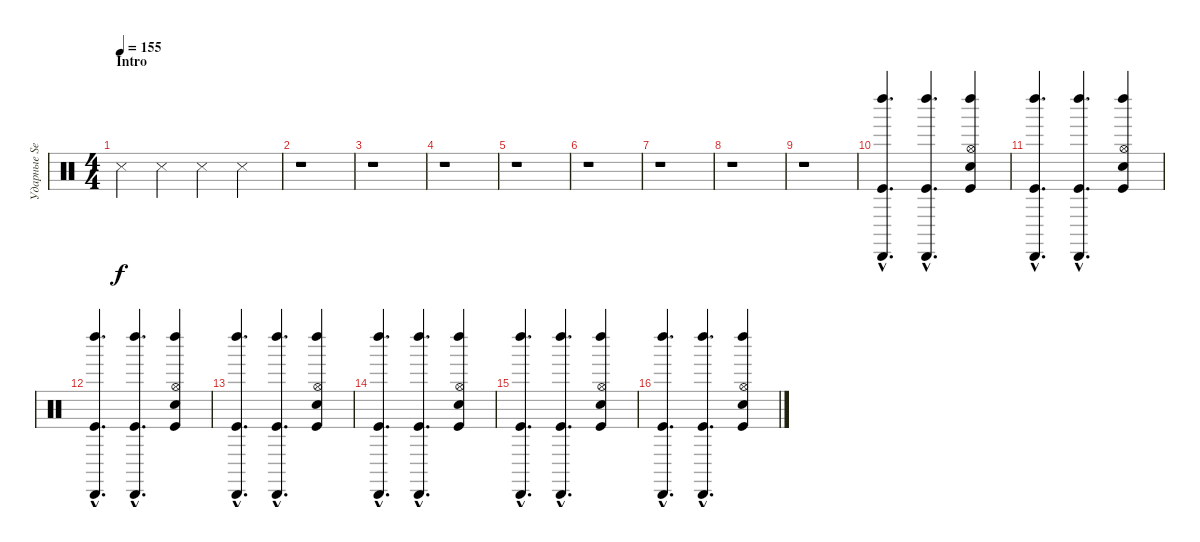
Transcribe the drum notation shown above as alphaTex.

\track ("Ударные Serge Petrone" "Ударные Se") {instrument percussion}
\staff {score}
\articulation defaults
\ts (4 4)
\section ("" "Intro")
\tempo 155
\clef neutral
\ks c "Snare (side stick) 3".4{dy f} "Snare (side stick) 3".4 "Snare (side stick) 3".4 "Snare (side stick) 3".4
|
r.1 |
r.1 |
r.1 |
r.1 |
r.1 |
r.1 |
r.1 |
r.1 |
("Cabasa (hit)"{hac} "Kick (hit)"{hac} "Left Maraca (hit)"{hac}).4{d} ("Cabasa (hit)"{hac} "Kick (hit)"{hac} "Left Maraca (hit)"{hac}).4{d} ("Hi-Hat (open)" "Hand Clap (hit)" "Kick (hit)" "Left Maraca (hit)").4 |
("Cabasa (hit)"{hac} "Kick (hit)"{hac} "Left Maraca (hit)"{hac}).4{d} ("Cabasa (hit)"{hac} "Kick (hit)"{hac} "Left Maraca (hit)"{hac}).4{d} ("Hi-Hat (open)" "Hand Clap (hit)" "Kick (hit)" "Left Maraca (hit)").4 |
("Cabasa (hit)"{hac} "Kick (hit)"{hac} "Left Maraca (hit)"{hac}).4{d} ("Cabasa (hit)"{hac} "Kick (hit)"{hac} "Left Maraca (hit)"{hac}).4{d} ("Hi-Hat (open)" "Hand Clap (hit)" "Kick (hit)" "Left Maraca (hit)").4 |
("Cabasa (hit)"{hac} "Kick (hit)"{hac} "Left Maraca (hit)"{hac}).4{d} ("Cabasa (hit)"{hac} "Kick (hit)"{hac} "Left Maraca (hit)"{hac}).4{d} ("Hi-Hat (open)" "Hand Clap (hit)" "Kick (hit)" "Left Maraca (hit)").4 |
("Cabasa (hit)"{hac} "Kick (hit)"{hac} "Left Maraca (hit)"{hac}).4{d} ("Cabasa (hit)"{hac} "Kick (hit)"{hac} "Left Maraca (hit)"{hac}).4{d} ("Hi-Hat (open)" "Hand Clap (hit)" "Kick (hit)" "Left Maraca (hit)").4 |
("Cabasa (hit)"{hac} "Kick (hit)"{hac} "Left Maraca (hit)"{hac}).4{d} ("Cabasa (hit)"{hac} "Kick (hit)"{hac} "Left Maraca (hit)"{hac}).4{d} ("Hi-Hat (open)" "Hand Clap (hit)" "Kick (hit)" "Left Maraca (hit)").4 |
("Cabasa (hit)"{hac} "Kick (hit)"{hac} "Left Maraca (hit)"{hac}).4{d} ("Cabasa (hit)"{hac} "Kick (hit)"{hac} "Left Maraca (hit)"{hac}).4{d} ("Hi-Hat (open)" "Hand Clap (hit)" "Kick (hit)" "Left Maraca (hit)").4
